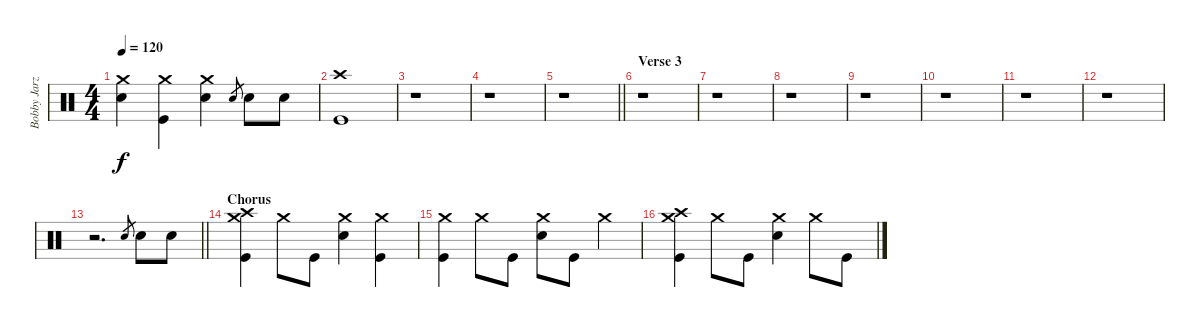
\track ("Bobby Jarzombek" "Bobby Jarz") {instrument percussion}
\staff {score}
\articulation defaults
\ts (4 4)
\tempo 120
\clef neutral
\ks c
("Crash medium (hit)" "Electric Snare (hit)").4{dy f} ("Crash medium (hit)" "Kick (hit)").4 ("Crash medium (hit)" "Electric Snare (hit)").4 "Electric Snare (hit)".8{gr} "Electric Snare (hit)".8 "Electric Snare (hit)".8 |
("Crash high (hit)" "Kick (hit)").1 |
r.1 |
r.1 |
\barLineRight lightlight
r.1 |
\section ("" "Verse 3")
r.1 |
r.1 |
r.1 |
r.1 |
r.1 |
r.1 |
r.1 |
\barLineRight lightlight
r.2{d} "Electric Snare (hit)".8{gr} "Electric Snare (hit)".8 "Electric Snare (hit)".8 |
\section ("" "Chorus")
("Crash high (hit)" "Crash medium (hit)" "Kick (hit)").4 "Crash medium (hit)".8 "Kick (hit)".8 ("Crash medium (hit)" "Electric Snare (hit)").4 ("Crash medium (hit)" "Kick (hit)").4 |
("Crash medium (hit)" "Kick (hit)").4 "Crash medium (hit)".8 "Kick (hit)".8 ("Crash medium (hit)" "Electric Snare (hit)").8 "Kick (hit)".8 "Crash medium (hit)".4 |
("Crash high (hit)" "Crash medium (hit)" "Kick (hit)").4 "Crash medium (hit)".8 "Kick (hit)".8 ("Crash medium (hit)" "Electric Snare (hit)").4 "Crash medium (hit)".8 "Kick (hit)".8
